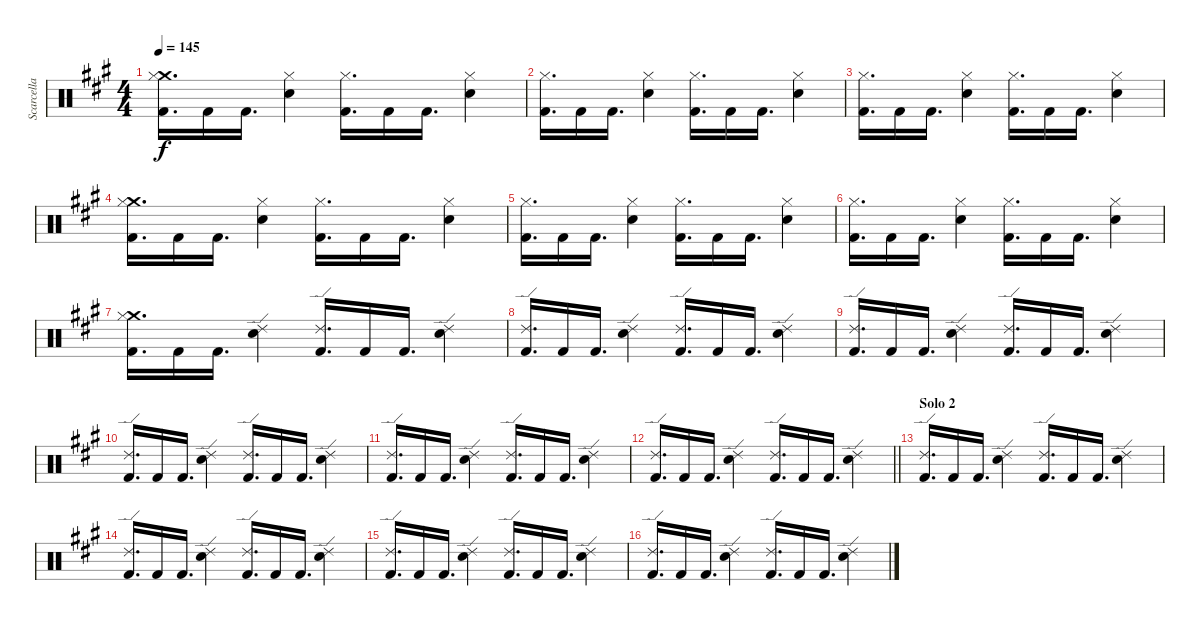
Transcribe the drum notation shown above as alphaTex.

\track ("Scarcella" "Scarcella") {instrument percussion}
\staff {score}
\articulation defaults
\ts (4 4)
\tempo 145
\clef neutral
\ks f#minor
("Crash medium (hit)" "Hi-Hat (closed)" "Kick (hit) 2").16{d dy f} "Kick (hit) 2".16 "Kick (hit) 2".16{d} ("Hi-Hat (closed)" "Snare (hit) 2").4 ("Hi-Hat (closed)" "Kick (hit) 2").16{d} "Kick (hit) 2".16 "Kick (hit) 2".16{d} ("Hi-Hat (closed)" "Snare (hit) 2").4 |
("Hi-Hat (closed)" "Kick (hit) 2").16{d} "Kick (hit) 2".16 "Kick (hit) 2".16{d} ("Hi-Hat (closed)" "Snare (hit) 2").4 ("Hi-Hat (closed)" "Kick (hit) 2").16{d} "Kick (hit) 2".16 "Kick (hit) 2".16{d} ("Hi-Hat (closed)" "Snare (hit) 2").4 |
("Hi-Hat (closed)" "Kick (hit) 2").16{d} "Kick (hit) 2".16 "Kick (hit) 2".16{d} ("Hi-Hat (closed)" "Snare (hit) 2").4 ("Hi-Hat (closed)" "Kick (hit) 2").16{d} "Kick (hit) 2".16 "Kick (hit) 2".16{d} ("Hi-Hat (closed)" "Snare (hit) 2").4 |
("Crash medium (hit)" "Hi-Hat (closed)" "Kick (hit) 2").16{d} "Kick (hit) 2".16 "Kick (hit) 2".16{d} ("Hi-Hat (closed)" "Snare (hit) 2").4 ("Hi-Hat (closed)" "Kick (hit) 2").16{d} "Kick (hit) 2".16 "Kick (hit) 2".16{d} ("Hi-Hat (closed)" "Snare (hit) 2").4 |
("Hi-Hat (closed)" "Kick (hit) 2").16{d} "Kick (hit) 2".16 "Kick (hit) 2".16{d} ("Hi-Hat (closed)" "Snare (hit) 2").4 ("Hi-Hat (closed)" "Kick (hit) 2").16{d} "Kick (hit) 2".16 "Kick (hit) 2".16{d} ("Hi-Hat (closed)" "Snare (hit) 2").4 |
("Hi-Hat (closed)" "Kick (hit) 2").16{d} "Kick (hit) 2".16 "Kick (hit) 2".16{d} ("Hi-Hat (closed)" "Snare (hit) 2").4 ("Hi-Hat (closed)" "Kick (hit) 2").16{d} "Kick (hit) 2".16 "Kick (hit) 2".16{d} ("Hi-Hat (closed)" "Snare (hit) 2").4 |
("Crash medium (hit)" "Hi-Hat (closed)" "Kick (hit) 2").16{d} "Kick (hit) 2".16 "Kick (hit) 2".16{d} ("Ride (edge) 2" "Snare (hit) 2").4 ("Ride (edge) 2" "Kick (hit) 2").16{d} "Kick (hit) 2".16 "Kick (hit) 2".16{d} ("Ride (edge) 2" "Snare (hit) 2").4 |
("Ride (edge) 2" "Kick (hit) 2").16{d} "Kick (hit) 2".16 "Kick (hit) 2".16{d} ("Ride (edge) 2" "Snare (hit) 2").4 ("Ride (edge) 2" "Kick (hit) 2").16{d} "Kick (hit) 2".16 "Kick (hit) 2".16{d} ("Ride (edge) 2" "Snare (hit) 2").4 |
("Ride (edge) 2" "Kick (hit) 2").16{d} "Kick (hit) 2".16 "Kick (hit) 2".16{d} ("Ride (edge) 2" "Snare (hit) 2").4 ("Ride (edge) 2" "Kick (hit) 2").16{d} "Kick (hit) 2".16 "Kick (hit) 2".16{d} ("Ride (edge) 2" "Snare (hit) 2").4 |
("Ride (edge) 2" "Kick (hit) 2").16{d} "Kick (hit) 2".16 "Kick (hit) 2".16{d} ("Ride (edge) 2" "Snare (hit) 2").4 ("Ride (edge) 2" "Kick (hit) 2").16{d} "Kick (hit) 2".16 "Kick (hit) 2".16{d} ("Ride (edge) 2" "Snare (hit) 2").4 |
("Ride (edge) 2" "Kick (hit) 2").16{d} "Kick (hit) 2".16 "Kick (hit) 2".16{d} ("Ride (edge) 2" "Snare (hit) 2").4 ("Ride (edge) 2" "Kick (hit) 2").16{d} "Kick (hit) 2".16 "Kick (hit) 2".16{d} ("Ride (edge) 2" "Snare (hit) 2").4 |
\barLineRight lightlight
("Ride (edge) 2" "Kick (hit) 2").16{d} "Kick (hit) 2".16 "Kick (hit) 2".16{d} ("Ride (edge) 2" "Snare (hit) 2").4 ("Ride (edge) 2" "Kick (hit) 2").16{d} "Kick (hit) 2".16 "Kick (hit) 2".16{d} ("Ride (edge) 2" "Snare (hit) 2").4 |
\section ("" "Solo 2")
("Ride (edge) 2" "Kick (hit) 2").16{d} "Kick (hit) 2".16 "Kick (hit) 2".16{d} ("Ride (edge) 2" "Snare (hit) 2").4 ("Ride (edge) 2" "Kick (hit) 2").16{d} "Kick (hit) 2".16 "Kick (hit) 2".16{d} ("Ride (edge) 2" "Snare (hit) 2").4 |
("Ride (edge) 2" "Kick (hit) 2").16{d} "Kick (hit) 2".16 "Kick (hit) 2".16{d} ("Ride (edge) 2" "Snare (hit) 2").4 ("Ride (edge) 2" "Kick (hit) 2").16{d} "Kick (hit) 2".16 "Kick (hit) 2".16{d} ("Ride (edge) 2" "Snare (hit) 2").4 |
("Ride (edge) 2" "Kick (hit) 2").16{d} "Kick (hit) 2".16 "Kick (hit) 2".16{d} ("Ride (edge) 2" "Snare (hit) 2").4 ("Ride (edge) 2" "Kick (hit) 2").16{d} "Kick (hit) 2".16 "Kick (hit) 2".16{d} ("Ride (edge) 2" "Snare (hit) 2").4 |
("Ride (edge) 2" "Kick (hit) 2").16{d} "Kick (hit) 2".16 "Kick (hit) 2".16{d} ("Ride (edge) 2" "Snare (hit) 2").4 ("Ride (edge) 2" "Kick (hit) 2").16{d} "Kick (hit) 2".16 "Kick (hit) 2".16{d} ("Ride (edge) 2" "Snare (hit) 2").4
